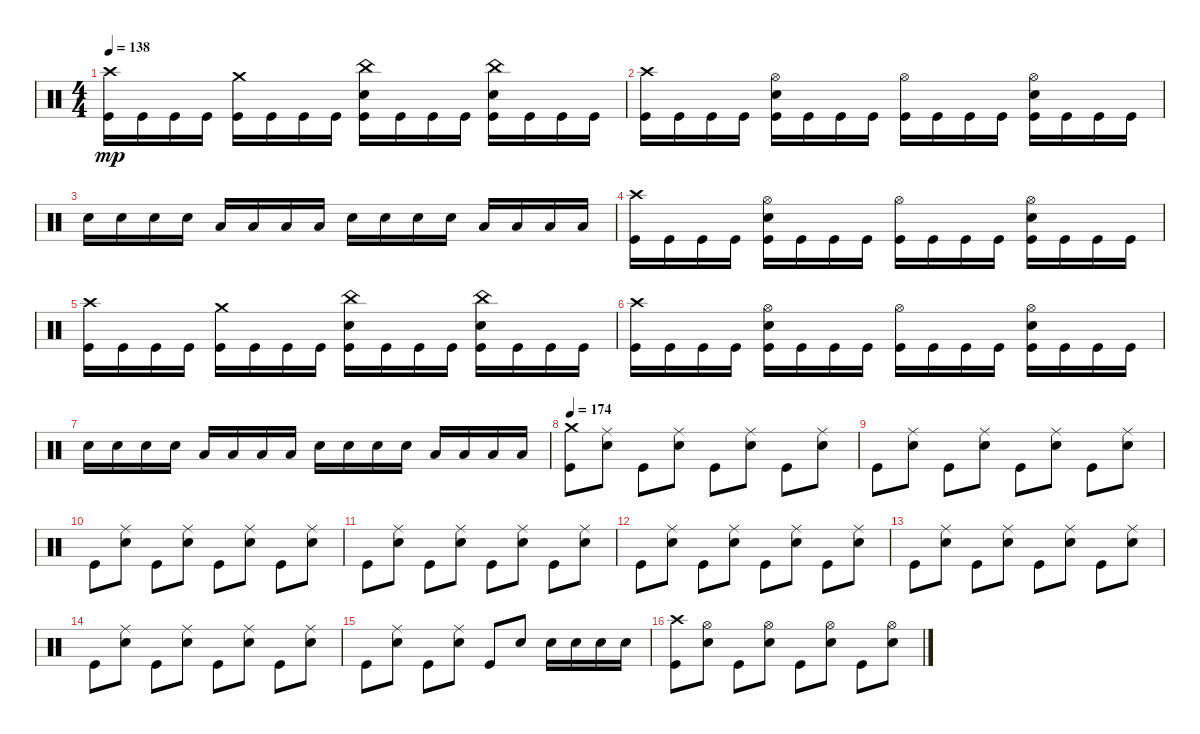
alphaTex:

\track "" {instrument percussion}
\staff {score}
\articulation defaults
\ts (4 4)
\tempo 138
\clef neutral
\ks c
("Kick (hit)" "Crash high (hit)").16{dy mp} "Kick (hit)".16 "Kick (hit)".16 "Kick (hit)".16 ("Kick (hit)" "Crash medium (hit)").16 "Kick (hit)".16 "Kick (hit)".16 "Kick (hit)".16 ("Kick (hit)" "Snare (hit) 2" "China (hit)").16 "Kick (hit)".16 "Kick (hit)".16 "Kick (hit)".16 ("Kick (hit)" "Snare (hit) 2" "China (hit)").16 "Kick (hit)".16 "Kick (hit)".16 "Kick (hit)".16 |
("Crash high (hit)" "Kick (hit)").16 "Kick (hit)".16 "Kick (hit)".16 "Kick (hit)".16 ("Kick (hit)" "Hi-Hat (open)" "Snare (hit) 2").16 "Kick (hit)".16 "Kick (hit)".16 "Kick (hit)".16 ("Kick (hit)" "Hi-Hat (open)").16 "Kick (hit)".16 "Kick (hit)".16 "Kick (hit)".16 ("Kick (hit)" "Snare (hit) 2" "Hi-Hat (open)").16 "Kick (hit)".16 "Kick (hit)".16 "Kick (hit)".16 |
"Snare (hit) 2".16 "Snare (hit) 2".16 "Snare (hit) 2".16 "Snare (hit) 2".16 "Low Tom (hit)".16 "Low Tom (hit)".16 "Low Tom (hit)".16 "Low Tom (hit)".16 "Snare (hit) 2".16 "Snare (hit) 2".16 "Snare (hit) 2".16 "Snare (hit) 2".16 "Low Tom (hit)".16 "Low Tom (hit)".16 "Low Tom (hit)".16 "Low Tom (hit)".16 |
("Kick (hit)" "Crash high (hit)").16 "Kick (hit)".16 "Kick (hit)".16 "Kick (hit)".16 ("Kick (hit)" "Hi-Hat (open)" "Snare (hit) 2").16 "Kick (hit)".16 "Kick (hit)".16 "Kick (hit)".16 ("Kick (hit)" "Hi-Hat (open)").16 "Kick (hit)".16 "Kick (hit)".16 "Kick (hit)".16 ("Kick (hit)" "Snare (hit) 2" "Hi-Hat (open)").16 "Kick (hit)".16 "Kick (hit)".16 "Kick (hit)".16 |
("Kick (hit)" "Crash high (hit)").16 "Kick (hit)".16 "Kick (hit)".16 "Kick (hit)".16 ("Kick (hit)" "Crash medium (hit)").16 "Kick (hit)".16 "Kick (hit)".16 "Kick (hit)".16 ("Kick (hit)" "Snare (hit) 2" "China (hit)").16 "Kick (hit)".16 "Kick (hit)".16 "Kick (hit)".16 ("Kick (hit)" "Snare (hit) 2" "China (hit)").16 "Kick (hit)".16 "Kick (hit)".16 "Kick (hit)".16 |
("Crash high (hit)" "Kick (hit)").16 "Kick (hit)".16 "Kick (hit)".16 "Kick (hit)".16 ("Kick (hit)" "Hi-Hat (open)" "Snare (hit) 2").16 "Kick (hit)".16 "Kick (hit)".16 "Kick (hit)".16 ("Kick (hit)" "Hi-Hat (open)").16 "Kick (hit)".16 "Kick (hit)".16 "Kick (hit)".16 ("Kick (hit)" "Snare (hit) 2" "Hi-Hat (open)").16 "Kick (hit)".16 "Kick (hit)".16 "Kick (hit)".16 |
"Snare (hit) 2".16 "Snare (hit) 2".16 "Snare (hit) 2".16 "Snare (hit) 2".16 "Low Tom (hit)".16 "Low Tom (hit)".16 "Low Tom (hit)".16 "Low Tom (hit)".16 "Snare (hit) 2".16 "Snare (hit) 2".16 "Snare (hit) 2".16 "Snare (hit) 2".16 "Low Tom (hit)".16 "Low Tom (hit)".16 "Low Tom (hit)".16 "Low Tom (hit)".16 |
\tempo 174
("Kick (hit)" "Crash medium (hit)").8 ("Snare (hit) 2" "Ride (middle)").8 "Kick (hit)".8 ("Snare (hit) 2" "Ride (middle)").8 "Kick (hit)".8 ("Snare (hit) 2" "Ride (middle)").8 "Kick (hit)".8 ("Snare (hit) 2" "Ride (middle)").8 |
"Kick (hit)".8 ("Snare (hit) 2" "Ride (middle)").8 "Kick (hit)".8 ("Snare (hit) 2" "Ride (middle)").8 "Kick (hit)".8 ("Snare (hit) 2" "Ride (middle)").8 "Kick (hit)".8 ("Snare (hit) 2" "Ride (middle)").8 |
"Kick (hit)".8 ("Snare (hit) 2" "Ride (middle)").8 "Kick (hit)".8 ("Snare (hit) 2" "Ride (middle)").8 "Kick (hit)".8 ("Snare (hit) 2" "Ride (middle)").8 "Kick (hit)".8 ("Snare (hit) 2" "Ride (middle)").8 |
"Kick (hit)".8 ("Snare (hit) 2" "Ride (middle)").8 "Kick (hit)".8 ("Snare (hit) 2" "Ride (middle)").8 "Kick (hit)".8 ("Snare (hit) 2" "Ride (middle)").8 "Kick (hit)".8 ("Snare (hit) 2" "Ride (middle)").8 |
"Kick (hit)".8 ("Snare (hit) 2" "Ride (middle)").8 "Kick (hit)".8 ("Snare (hit) 2" "Ride (middle)").8 "Kick (hit)".8 ("Snare (hit) 2" "Ride (middle)").8 "Kick (hit)".8 ("Snare (hit) 2" "Ride (middle)").8 |
"Kick (hit)".8 ("Snare (hit) 2" "Ride (middle)").8 "Kick (hit)".8 ("Snare (hit) 2" "Ride (middle)").8 "Kick (hit)".8 ("Snare (hit) 2" "Ride (middle)").8 "Kick (hit)".8 ("Snare (hit) 2" "Ride (middle)").8 |
"Kick (hit)".8 ("Snare (hit) 2" "Ride (middle)").8 "Kick (hit)".8 ("Snare (hit) 2" "Ride (middle)").8 "Kick (hit)".8 ("Snare (hit) 2" "Ride (middle)").8 "Kick (hit)".8 ("Snare (hit) 2" "Ride (middle)").8 |
"Kick (hit)".8 ("Snare (hit) 2" "Ride (middle)").8 "Kick (hit)".8 ("Snare (hit) 2" "Ride (middle)").8 "Kick (hit)".8 "Snare (hit) 2".8 "Snare (hit) 2".16 "Snare (hit) 2".16 "Snare (hit) 2".16 "Snare (hit) 2".16 |
("Kick (hit)" "Crash high (hit)").8 ("Snare (hit) 2" "Hi-Hat (open)").8 "Kick (hit)".8 ("Snare (hit) 2" "Hi-Hat (open)").8 "Kick (hit)".8 ("Snare (hit) 2" "Hi-Hat (open)").8 "Kick (hit)".8 ("Snare (hit) 2" "Hi-Hat (open)").8
